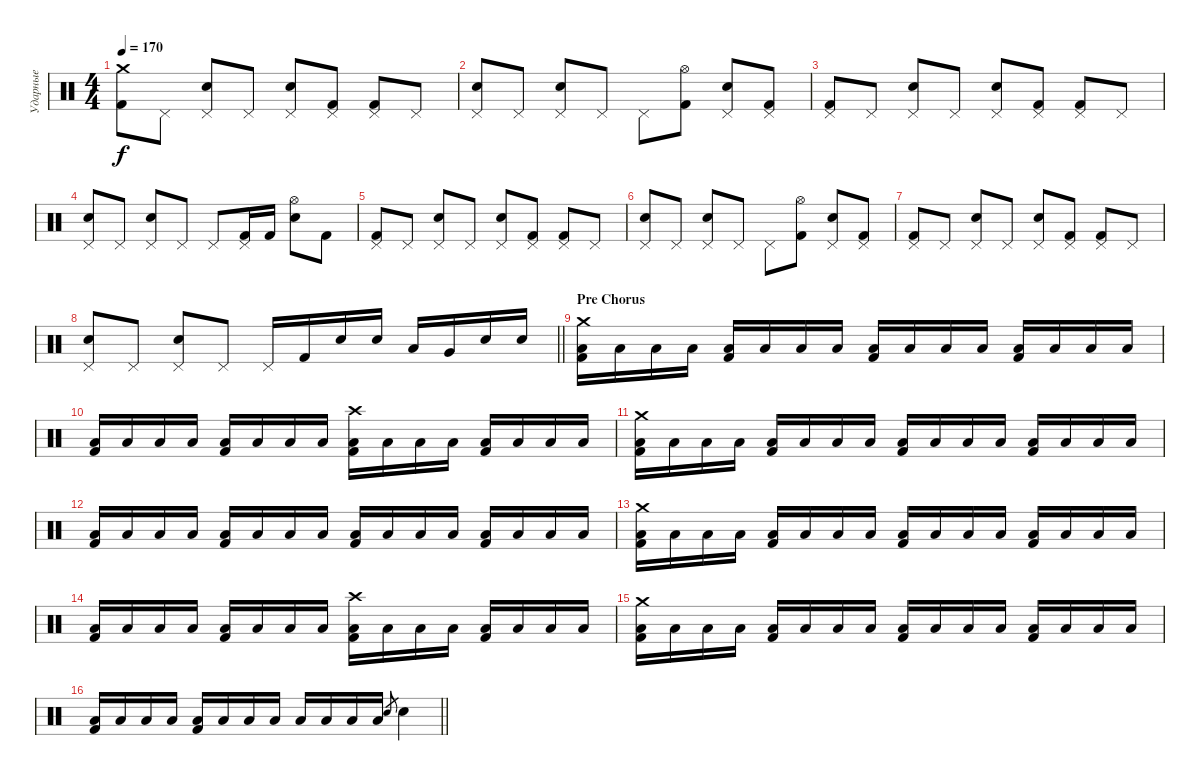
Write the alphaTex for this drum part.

\track ("Ударные" "Ударные") {instrument percussion}
\staff {score}
\articulation defaults
\ts (4 4)
\tempo 170
\clef neutral
\ks c
("Crash medium (hit)" "Kick (hit) 2").8{dy f} "Pedal Hi-Hat (hit)".8 ("Pedal Hi-Hat (hit)" "Electric Snare (hit)").8 "Pedal Hi-Hat (hit)".8 ("Pedal Hi-Hat (hit)" "Electric Snare (hit)").8 ("Pedal Hi-Hat (hit)" "Kick (hit) 2").8 ("Pedal Hi-Hat (hit)" "Kick (hit) 2").8 "Pedal Hi-Hat (hit)".8 |
("Pedal Hi-Hat (hit)" "Electric Snare (hit)").8 "Pedal Hi-Hat (hit)".8 ("Pedal Hi-Hat (hit)" "Electric Snare (hit)").8 "Pedal Hi-Hat (hit)".8 "Pedal Hi-Hat (hit)".8 ("Hi-Hat (open)" "Kick (hit) 2").8 ("Pedal Hi-Hat (hit)" "Electric Snare (hit)").8 ("Pedal Hi-Hat (hit)" "Kick (hit) 2").8 |
("Pedal Hi-Hat (hit)" "Kick (hit) 2").8 "Pedal Hi-Hat (hit)".8 ("Pedal Hi-Hat (hit)" "Electric Snare (hit)").8 "Pedal Hi-Hat (hit)".8 ("Pedal Hi-Hat (hit)" "Electric Snare (hit)").8 ("Pedal Hi-Hat (hit)" "Kick (hit) 2").8 ("Pedal Hi-Hat (hit)" "Kick (hit) 2").8 "Pedal Hi-Hat (hit)".8 |
("Pedal Hi-Hat (hit)" "Electric Snare (hit)").8 "Pedal Hi-Hat (hit)".8 ("Pedal Hi-Hat (hit)" "Electric Snare (hit)").8 "Pedal Hi-Hat (hit)".8 "Pedal Hi-Hat (hit)".8 ("Pedal Hi-Hat (hit)" "Kick (hit) 2").16 "Kick (hit) 2".16 ("Hi-Hat (open)" "Electric Snare (hit)").8 "Kick (hit) 2".8 |
("Pedal Hi-Hat (hit)" "Kick (hit) 2").8 "Pedal Hi-Hat (hit)".8 ("Pedal Hi-Hat (hit)" "Electric Snare (hit)").8 "Pedal Hi-Hat (hit)".8 ("Pedal Hi-Hat (hit)" "Electric Snare (hit)").8 ("Pedal Hi-Hat (hit)" "Kick (hit) 2").8 ("Pedal Hi-Hat (hit)" "Kick (hit) 2").8 "Pedal Hi-Hat (hit)".8 |
("Pedal Hi-Hat (hit)" "Electric Snare (hit)").8 "Pedal Hi-Hat (hit)".8 ("Pedal Hi-Hat (hit)" "Electric Snare (hit)").8 "Pedal Hi-Hat (hit)".8 "Pedal Hi-Hat (hit)".8 ("Hi-Hat (open)" "Kick (hit) 2").8 ("Pedal Hi-Hat (hit)" "Electric Snare (hit)").8 ("Pedal Hi-Hat (hit)" "Kick (hit) 2").8 |
("Pedal Hi-Hat (hit)" "Kick (hit) 2").8 "Pedal Hi-Hat (hit)".8 ("Pedal Hi-Hat (hit)" "Electric Snare (hit)").8 "Pedal Hi-Hat (hit)".8 ("Pedal Hi-Hat (hit)" "Electric Snare (hit)").8 ("Pedal Hi-Hat (hit)" "Kick (hit) 2").8 ("Pedal Hi-Hat (hit)" "Kick (hit) 2").8 "Pedal Hi-Hat (hit)".8 |
\barLineRight lightlight
("Pedal Hi-Hat (hit)" "Electric Snare (hit)").8 "Pedal Hi-Hat (hit)".8 ("Pedal Hi-Hat (hit)" "Electric Snare (hit)").8 "Pedal Hi-Hat (hit)".8 "Pedal Hi-Hat (hit)".16 "Kick (hit) 2".16 "Electric Snare (hit)".16 "Electric Snare (hit)".16 "Low Tom (hit)".16 "Very Low Tom (hit)".16 "Electric Snare (hit)".16 "Electric Snare (hit)".16 |
\section ("" "Pre Chorus")
("Crash medium (hit)" "Low Floor Tom (hit)" "Kick (hit) 2").16 "Low Floor Tom (hit)".16 "Low Floor Tom (hit)".16 "Low Floor Tom (hit)".16 ("Low Floor Tom (hit)" "Kick (hit) 2").16 "Low Floor Tom (hit)".16 "Low Floor Tom (hit)".16 "Low Floor Tom (hit)".16 ("Low Floor Tom (hit)" "Kick (hit) 2").16 "Low Floor Tom (hit)".16 "Low Floor Tom (hit)".16 "Low Floor Tom (hit)".16 ("Low Floor Tom (hit)" "Kick (hit) 2").16 "Low Floor Tom (hit)".16 "Low Floor Tom (hit)".16 "Low Floor Tom (hit)".16 |
("Low Floor Tom (hit)" "Kick (hit) 2").16 "Low Floor Tom (hit)".16 "Low Floor Tom (hit)".16 "Low Floor Tom (hit)".16 ("Low Floor Tom (hit)" "Kick (hit) 2").16 "Low Floor Tom (hit)".16 "Low Floor Tom (hit)".16 "Low Floor Tom (hit)".16 ("Crash high (hit)" "Low Floor Tom (hit)" "Kick (hit) 2").16 "Low Floor Tom (hit)".16 "Low Floor Tom (hit)".16 "Low Floor Tom (hit)".16 ("Low Floor Tom (hit)" "Kick (hit) 2").16 "Low Floor Tom (hit)".16 "Low Floor Tom (hit)".16 "Low Floor Tom (hit)".16 |
("Crash medium (hit)" "Low Floor Tom (hit)" "Kick (hit) 2").16 "Low Floor Tom (hit)".16 "Low Floor Tom (hit)".16 "Low Floor Tom (hit)".16 ("Low Floor Tom (hit)" "Kick (hit) 2").16 "Low Floor Tom (hit)".16 "Low Floor Tom (hit)".16 "Low Floor Tom (hit)".16 ("Low Floor Tom (hit)" "Kick (hit) 2").16 "Low Floor Tom (hit)".16 "Low Floor Tom (hit)".16 "Low Floor Tom (hit)".16 ("Low Floor Tom (hit)" "Kick (hit) 2").16 "Low Floor Tom (hit)".16 "Low Floor Tom (hit)".16 "Low Floor Tom (hit)".16 |
("Low Floor Tom (hit)" "Kick (hit) 2").16 "Low Floor Tom (hit)".16 "Low Floor Tom (hit)".16 "Low Floor Tom (hit)".16 ("Low Floor Tom (hit)" "Kick (hit) 2").16 "Low Floor Tom (hit)".16 "Low Floor Tom (hit)".16 "Low Floor Tom (hit)".16 ("Low Floor Tom (hit)" "Kick (hit) 2").16 "Low Floor Tom (hit)".16 "Low Floor Tom (hit)".16 "Low Floor Tom (hit)".16 ("Low Floor Tom (hit)" "Kick (hit) 2").16 "Low Floor Tom (hit)".16 "Low Floor Tom (hit)".16 "Low Floor Tom (hit)".16 |
("Crash medium (hit)" "Low Floor Tom (hit)" "Kick (hit) 2").16 "Low Floor Tom (hit)".16 "Low Floor Tom (hit)".16 "Low Floor Tom (hit)".16 ("Low Floor Tom (hit)" "Kick (hit) 2").16 "Low Floor Tom (hit)".16 "Low Floor Tom (hit)".16 "Low Floor Tom (hit)".16 ("Low Floor Tom (hit)" "Kick (hit) 2").16 "Low Floor Tom (hit)".16 "Low Floor Tom (hit)".16 "Low Floor Tom (hit)".16 ("Low Floor Tom (hit)" "Kick (hit) 2").16 "Low Floor Tom (hit)".16 "Low Floor Tom (hit)".16 "Low Floor Tom (hit)".16 |
("Low Floor Tom (hit)" "Kick (hit) 2").16 "Low Floor Tom (hit)".16 "Low Floor Tom (hit)".16 "Low Floor Tom (hit)".16 ("Low Floor Tom (hit)" "Kick (hit) 2").16 "Low Floor Tom (hit)".16 "Low Floor Tom (hit)".16 "Low Floor Tom (hit)".16 ("Crash high (hit)" "Low Floor Tom (hit)" "Kick (hit) 2").16 "Low Floor Tom (hit)".16 "Low Floor Tom (hit)".16 "Low Floor Tom (hit)".16 ("Low Floor Tom (hit)" "Kick (hit) 2").16 "Low Floor Tom (hit)".16 "Low Floor Tom (hit)".16 "Low Floor Tom (hit)".16 |
("Crash medium (hit)" "Low Floor Tom (hit)" "Kick (hit) 2").16 "Low Floor Tom (hit)".16 "Low Floor Tom (hit)".16 "Low Floor Tom (hit)".16 ("Low Floor Tom (hit)" "Kick (hit) 2").16 "Low Floor Tom (hit)".16 "Low Floor Tom (hit)".16 "Low Floor Tom (hit)".16 ("Low Floor Tom (hit)" "Kick (hit) 2").16 "Low Floor Tom (hit)".16 "Low Floor Tom (hit)".16 "Low Floor Tom (hit)".16 ("Low Floor Tom (hit)" "Kick (hit) 2").16 "Low Floor Tom (hit)".16 "Low Floor Tom (hit)".16 "Low Floor Tom (hit)".16 |
\barLineRight lightlight
("Low Floor Tom (hit)" "Kick (hit) 2").16 "Low Floor Tom (hit)".16 "Low Floor Tom (hit)".16 "Low Floor Tom (hit)".16 ("Low Floor Tom (hit)" "Kick (hit) 2").16 "Low Floor Tom (hit)".16 "Low Floor Tom (hit)".16 "Low Floor Tom (hit)".16 "Low Floor Tom (hit)".16 "Low Floor Tom (hit)".16 "Low Floor Tom (hit)".16 "Low Floor Tom (hit)".16 "Electric Snare (hit)".8{gr} "Electric Snare (hit)".4
